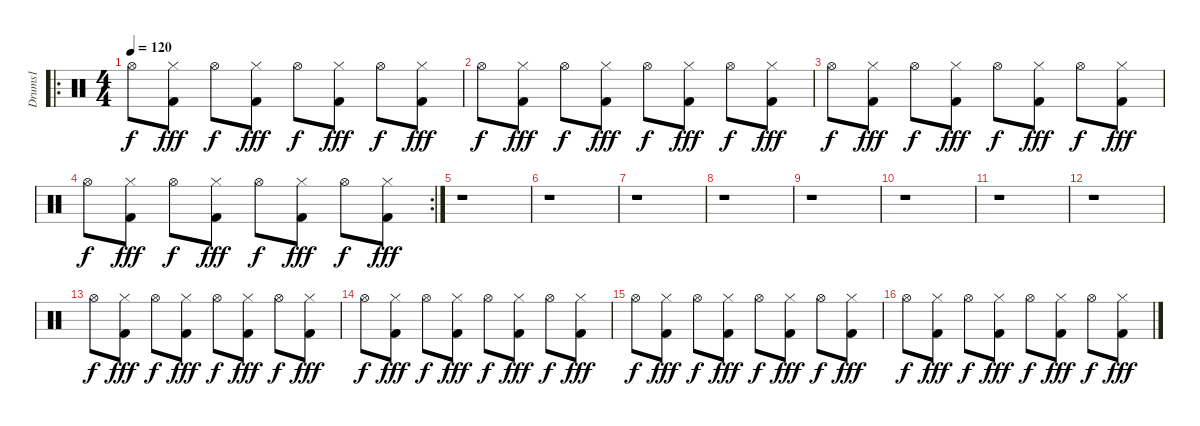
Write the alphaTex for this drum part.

\track ("Drums1" "Drums1") {instrument percussion}
\staff {score}
\articulation defaults
\ro
\ts (4 4)
\tempo 120
\clef neutral
\ks c "Hi-Hat (open)".8{dy f}
("Kick (hit) 2" "Hi-Hat (closed)").8{dy fff} "Hi-Hat (open)".8{dy f} ("Hi-Hat (closed)" "Kick (hit) 2").8{dy fff} "Hi-Hat (open)".8{dy f} ("Kick (hit) 2" "Hi-Hat (closed)").8{dy fff} "Hi-Hat (open)".8{dy f} ("Kick (hit) 2" "Hi-Hat (closed)").8{dy fff} |
"Hi-Hat (open)".8{dy f} ("Kick (hit) 2" "Hi-Hat (closed)").8{dy fff} "Hi-Hat (open)".8{dy f} ("Hi-Hat (closed)" "Kick (hit) 2").8{dy fff} "Hi-Hat (open)".8{dy f} ("Kick (hit) 2" "Hi-Hat (closed)").8{dy fff} "Hi-Hat (open)".8{dy f} ("Kick (hit) 2" "Hi-Hat (closed)").8{dy fff} |
"Hi-Hat (open)".8{dy f} ("Kick (hit) 2" "Hi-Hat (closed)").8{dy fff} "Hi-Hat (open)".8{dy f} ("Hi-Hat (closed)" "Kick (hit) 2").8{dy fff} "Hi-Hat (open)".8{dy f} ("Kick (hit) 2" "Hi-Hat (closed)").8{dy fff} "Hi-Hat (open)".8{dy f} ("Kick (hit) 2" "Hi-Hat (closed)").8{dy fff} |
\rc 2 "Hi-Hat (open)".8{dy f}
("Kick (hit) 2" "Hi-Hat (closed)").8{dy fff} "Hi-Hat (open)".8{dy f} ("Hi-Hat (closed)" "Kick (hit) 2").8{dy fff} "Hi-Hat (open)".8{dy f} ("Kick (hit) 2" "Hi-Hat (closed)").8{dy fff} "Hi-Hat (open)".8{dy f} ("Kick (hit) 2" "Hi-Hat (closed)").8{dy fff} |
r.1 |
r.1 |
r.1 |
r.1 |
r.1 |
r.1 |
r.1 |
r.1 |
"Hi-Hat (open)".8{dy f} ("Kick (hit) 2" "Hi-Hat (closed)").8{dy fff} "Hi-Hat (open)".8{dy f} ("Hi-Hat (closed)" "Kick (hit) 2").8{dy fff} "Hi-Hat (open)".8{dy f} ("Kick (hit) 2" "Hi-Hat (closed)").8{dy fff} "Hi-Hat (open)".8{dy f} ("Kick (hit) 2" "Hi-Hat (closed)").8{dy fff} |
"Hi-Hat (open)".8{dy f} ("Kick (hit) 2" "Hi-Hat (closed)").8{dy fff} "Hi-Hat (open)".8{dy f} ("Hi-Hat (closed)" "Kick (hit) 2").8{dy fff} "Hi-Hat (open)".8{dy f} ("Kick (hit) 2" "Hi-Hat (closed)").8{dy fff} "Hi-Hat (open)".8{dy f} ("Kick (hit) 2" "Hi-Hat (closed)").8{dy fff} |
"Hi-Hat (open)".8{dy f} ("Kick (hit) 2" "Hi-Hat (closed)").8{dy fff} "Hi-Hat (open)".8{dy f} ("Hi-Hat (closed)" "Kick (hit) 2").8{dy fff} "Hi-Hat (open)".8{dy f} ("Kick (hit) 2" "Hi-Hat (closed)").8{dy fff} "Hi-Hat (open)".8{dy f} ("Kick (hit) 2" "Hi-Hat (closed)").8{dy fff} |
"Hi-Hat (open)".8{dy f} ("Kick (hit) 2" "Hi-Hat (closed)").8{dy fff} "Hi-Hat (open)".8{dy f} ("Hi-Hat (closed)" "Kick (hit) 2").8{dy fff} "Hi-Hat (open)".8{dy f} ("Kick (hit) 2" "Hi-Hat (closed)").8{dy fff} "Hi-Hat (open)".8{dy f} ("Kick (hit) 2" "Hi-Hat (closed)").8{dy fff}
